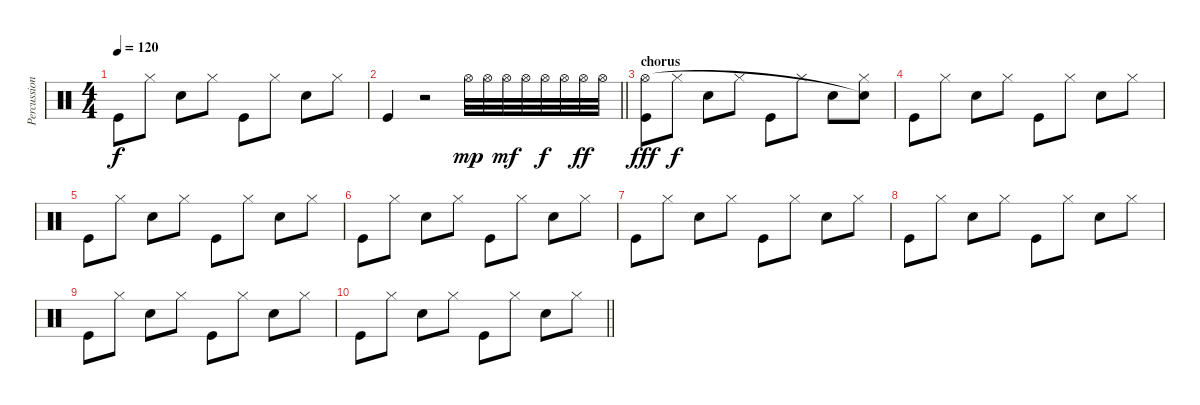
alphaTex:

\track ("Percussion" "Percussion") {instrument percussion}
\staff {score}
\articulation defaults
\ts (4 4)
\tempo 120
\clef neutral
\ks c "Kick (hit)".8{dy f} "Hi-Hat (closed)".8 "Snare (hit) 2".8 "Hi-Hat (closed)".8 "Kick (hit)".8 "Hi-Hat (closed)".8 "Snare (hit) 2".8 "Hi-Hat (closed)".8
|
\barLineRight lightlight "Kick (hit)".4
r.2 "Hi-Hat (open)".32{dy mp} "Hi-Hat (open)".32 "Hi-Hat (open)".32{dy mf} "Hi-Hat (open)".32 "Hi-Hat (open)".32{dy f} "Hi-Hat (open)".32 "Hi-Hat (open)".32{dy ff} "Hi-Hat (open)".32 |
\section ("" "chorus")
("Kick (hit)" "Hi-Hat (open)").8{dy fff} "Hi-Hat (closed)".8{dy f} "Snare (hit) 2".8 "Hi-Hat (closed)".8 "Kick (hit)".8 "Hi-Hat (closed)".8 "Snare (hit) 2".8 ("Hi-Hat (closed)" "Snare (hit)"{t}).8 |
"Kick (hit)".8 "Hi-Hat (closed)".8 "Snare (hit) 2".8 "Hi-Hat (closed)".8 "Kick (hit)".8 "Hi-Hat (closed)".8 "Snare (hit) 2".8 "Hi-Hat (closed)".8 |
"Kick (hit)".8 "Hi-Hat (closed)".8 "Snare (hit) 2".8 "Hi-Hat (closed)".8 "Kick (hit)".8 "Hi-Hat (closed)".8 "Snare (hit) 2".8 "Hi-Hat (closed)".8 |
"Kick (hit)".8 "Hi-Hat (closed)".8 "Snare (hit) 2".8 "Hi-Hat (closed)".8 "Kick (hit)".8 "Hi-Hat (closed)".8 "Snare (hit) 2".8 "Hi-Hat (closed)".8 |
"Kick (hit)".8 "Hi-Hat (closed)".8 "Snare (hit) 2".8 "Hi-Hat (closed)".8 "Kick (hit)".8 "Hi-Hat (closed)".8 "Snare (hit) 2".8 "Hi-Hat (closed)".8 |
"Kick (hit)".8 "Hi-Hat (closed)".8 "Snare (hit) 2".8 "Hi-Hat (closed)".8 "Kick (hit)".8 "Hi-Hat (closed)".8 "Snare (hit) 2".8 "Hi-Hat (closed)".8 |
"Kick (hit)".8 "Hi-Hat (closed)".8 "Snare (hit) 2".8 "Hi-Hat (closed)".8 "Kick (hit)".8 "Hi-Hat (closed)".8 "Snare (hit) 2".8 "Hi-Hat (closed)".8 |
\barLineRight lightlight "Kick (hit)".8 "Hi-Hat (closed)".8 "Snare (hit) 2".8 "Hi-Hat (closed)".8 "Kick (hit)".8 "Hi-Hat (closed)".8 "Snare (hit) 2".8 "Hi-Hat (closed)".8
